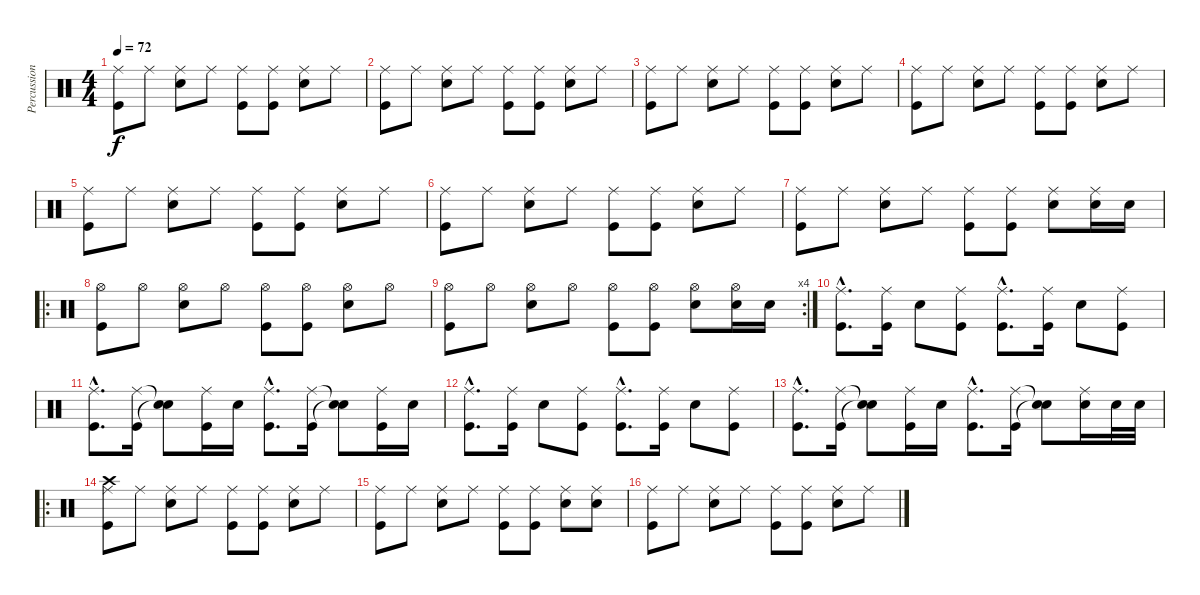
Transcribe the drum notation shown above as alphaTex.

\track ("Percussions" "Percussion") {instrument percussion}
\staff {score}
\articulation defaults
\ts (4 4)
\tempo 72
\clef neutral
\ks c
("Ride (middle)" "Kick (hit)").8{dy f} "Ride (middle)".8 ("Ride (middle)" "Snare (hit) 2").8 "Ride (middle)".8 ("Ride (middle)" "Kick (hit)").8 ("Ride (middle)" "Kick (hit)").8 ("Ride (middle)" "Snare (hit) 2").8 "Ride (middle)".8 |
("Ride (middle)" "Kick (hit)").8 "Ride (middle)".8 ("Ride (middle)" "Snare (hit) 2").8 "Ride (middle)".8 ("Ride (middle)" "Kick (hit)").8 ("Ride (middle)" "Kick (hit)").8 ("Ride (middle)" "Snare (hit) 2").8 "Ride (middle)".8 |
("Ride (middle)" "Kick (hit)").8 "Ride (middle)".8 ("Ride (middle)" "Snare (hit) 2").8 "Ride (middle)".8 ("Ride (middle)" "Kick (hit)").8 ("Ride (middle)" "Kick (hit)").8 ("Ride (middle)" "Snare (hit) 2").8 "Ride (middle)".8 |
("Ride (middle)" "Kick (hit)").8 "Ride (middle)".8 ("Ride (middle)" "Snare (hit) 2").8 "Ride (middle)".8 ("Ride (middle)" "Kick (hit)").8 ("Ride (middle)" "Kick (hit)").8 ("Ride (middle)" "Snare (hit) 2").8 "Ride (middle)".8 |
("Ride (middle)" "Kick (hit)").8 "Ride (middle)".8 ("Ride (middle)" "Snare (hit) 2").8 "Ride (middle)".8 ("Ride (middle)" "Kick (hit)").8 ("Ride (middle)" "Kick (hit)").8 ("Ride (middle)" "Snare (hit) 2").8 "Ride (middle)".8 |
("Ride (middle)" "Kick (hit)").8 "Ride (middle)".8 ("Ride (middle)" "Snare (hit) 2").8 "Ride (middle)".8 ("Ride (middle)" "Kick (hit)").8 ("Ride (middle)" "Kick (hit)").8 ("Ride (middle)" "Snare (hit) 2").8 "Ride (middle)".8 |
("Ride (middle)" "Kick (hit)").8 "Ride (middle)".8 ("Ride (middle)" "Snare (hit) 2").8 "Ride (middle)".8 ("Ride (middle)" "Kick (hit)").8 ("Ride (middle)" "Kick (hit)").8 ("Ride (middle)" "Snare (hit) 2").8 ("Ride (middle)" "Snare (hit) 2").16 "Snare (hit) 2".16 |
\ro
("Hi-Hat (open)" "Kick (hit)").8 "Hi-Hat (open)".8 ("Hi-Hat (open)" "Snare (hit) 2").8 "Hi-Hat (open)".8 ("Hi-Hat (open)" "Kick (hit)").8 ("Hi-Hat (open)" "Kick (hit)").8 ("Hi-Hat (open)" "Snare (hit) 2").8 "Hi-Hat (open)".8 |
\rc 4
("Hi-Hat (open)" "Kick (hit)").8 "Hi-Hat (open)".8 ("Hi-Hat (open)" "Snare (hit) 2").8 "Hi-Hat (open)".8 ("Hi-Hat (open)" "Kick (hit)").8 ("Hi-Hat (open)" "Kick (hit)").8 ("Hi-Hat (open)" "Snare (hit) 2").8 ("Hi-Hat (open)" "Snare (hit) 2").16 "Snare (hit) 2".16 |
("Ride (middle)"{hac} "Kick (hit)"{hac}).8{d} ("Ride (middle)" "Kick (hit)").16 "Snare (hit) 2".8 ("Ride (middle)" "Kick (hit)").8 ("Ride (middle)"{hac} "Kick (hit)"{hac}).8{d} ("Ride (middle)" "Kick (hit)").16 "Snare (hit) 2".8 ("Ride (middle)" "Kick (hit)").8 |
("Ride (middle)"{hac} "Kick (hit)"{hac}).8{d} ("Ride (middle)" "Kick (hit)").16 ("Snare (hit)"{t} "Snare (hit)"{t}).8 ("Ride (middle)" "Kick (hit)").16 "Snare (hit) 2".16 ("Ride (middle)"{hac} "Kick (hit)"{hac}).8{d} ("Ride (middle)" "Kick (hit)").16 ("Snare (hit)"{t} "Snare (hit)"{t}).8 ("Ride (middle)" "Kick (hit)").16 "Snare (hit) 2".16 |
("Ride (middle)"{hac} "Kick (hit)"{hac}).8{d} ("Ride (middle)" "Kick (hit)").16 "Snare (hit) 2".8 ("Ride (middle)" "Kick (hit)").8 ("Ride (middle)"{hac} "Kick (hit)"{hac}).8{d} ("Ride (middle)" "Kick (hit)").16 "Snare (hit) 2".8 ("Ride (middle)" "Kick (hit)").8 |
("Ride (middle)"{hac} "Kick (hit)"{hac}).8{d} ("Ride (middle)" "Kick (hit)").16 ("Snare (hit)"{t} "Snare (hit)"{t}).8 ("Ride (middle)" "Kick (hit)").16 "Snare (hit) 2".16 ("Ride (middle)"{hac} "Kick (hit)"{hac}).8{d} ("Ride (middle)" "Kick (hit)").16 ("Snare (hit)"{t} "Snare (hit)"{t}).8 ("Ride (middle)" "Snare (hit) 2").16 "Snare (hit) 2".32 "Snare (hit) 2".32 |
\ro
("Crash high (hit)" "Ride (middle)" "Kick (hit)").8 "Ride (middle)".8 ("Ride (middle)" "Snare (hit) 2").8 "Ride (middle)".8 ("Ride (middle)" "Kick (hit)").8 ("Ride (middle)" "Kick (hit)").8 ("Ride (middle)" "Snare (hit) 2").8 "Ride (middle)".8 |
("Ride (middle)" "Kick (hit)").8 "Ride (middle)".8 ("Ride (middle)" "Snare (hit) 2").8 "Ride (middle)".8 ("Ride (middle)" "Kick (hit)").8 ("Ride (middle)" "Kick (hit)").8 ("Ride (middle)" "Snare (hit) 2").8 ("Ride (middle)" "Snare (hit) 2").8 |
("Ride (middle)" "Kick (hit)").8 "Ride (middle)".8 ("Ride (middle)" "Snare (hit) 2").8 "Ride (middle)".8 ("Ride (middle)" "Kick (hit)").8 ("Ride (middle)" "Kick (hit)").8 ("Ride (middle)" "Snare (hit) 2").8 "Ride (middle)".8
